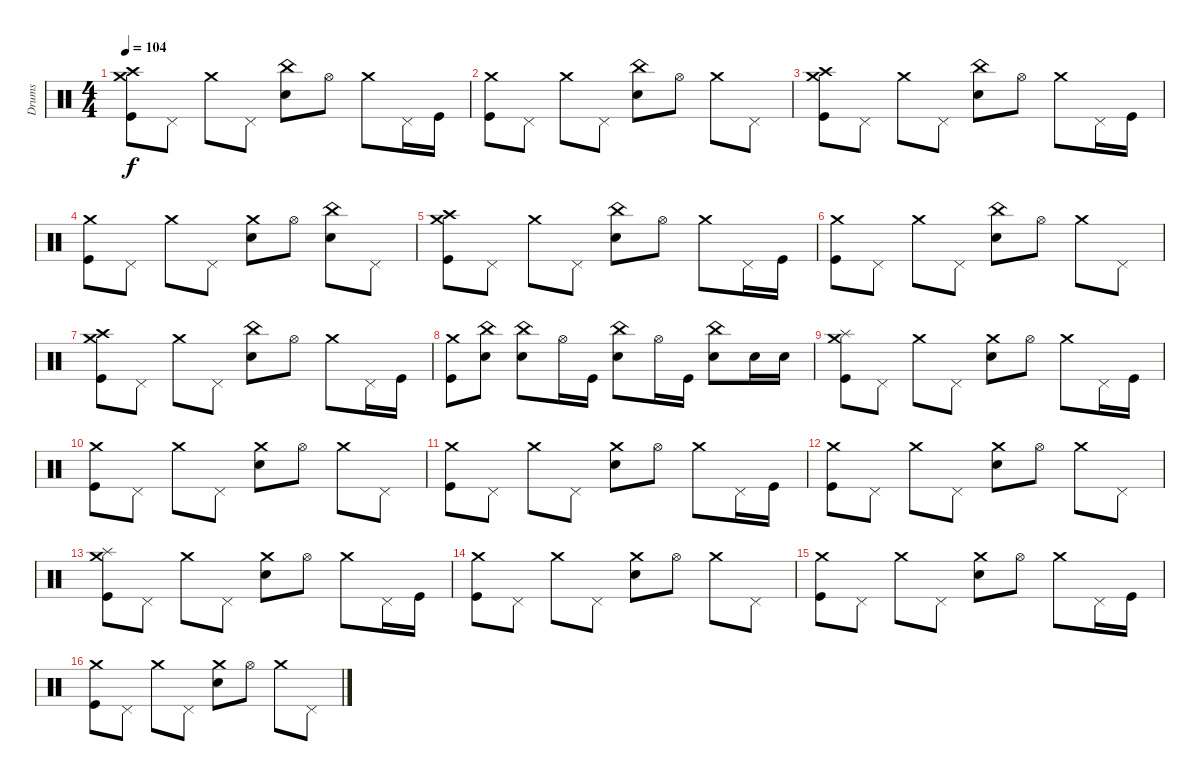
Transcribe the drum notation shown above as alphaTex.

\track ("Drums" "Drums") {instrument percussion}
\staff {score}
\articulation defaults
\ts (4 4)
\tempo 104
\clef neutral
\ks c
("Crash medium (hit)" "Crash high (hit)" "Kick (hit)").8{dy f} "Pedal Hi-Hat (hit)".8 "Crash medium (hit)".8 "Pedal Hi-Hat (hit)".8 ("China (hit)" "Electric Snare (hit)").8 "Hi-Hat (open)".8 "Crash medium (hit)".8 "Pedal Hi-Hat (hit)".16 "Kick (hit)".16 |
("Crash medium (hit)" "Kick (hit)").8 "Pedal Hi-Hat (hit)".8 "Crash medium (hit)".8 "Pedal Hi-Hat (hit)".8 ("China (hit)" "Electric Snare (hit)").8 "Hi-Hat (open)".8 "Crash medium (hit)".8 "Pedal Hi-Hat (hit)".8 |
("Crash medium (hit)" "Crash high (hit)" "Kick (hit)").8 "Pedal Hi-Hat (hit)".8 "Crash medium (hit)".8 "Pedal Hi-Hat (hit)".8 ("China (hit)" "Electric Snare (hit)").8 "Hi-Hat (open)".8 "Crash medium (hit)".8 "Pedal Hi-Hat (hit)".16 "Kick (hit)".16 |
("Crash medium (hit)" "Kick (hit)").8 "Pedal Hi-Hat (hit)".8 "Crash medium (hit)".8 "Pedal Hi-Hat (hit)".8 ("Crash medium (hit)" "Electric Snare (hit)").8 "Hi-Hat (open)".8 ("China (hit)" "Electric Snare (hit)").8 "Pedal Hi-Hat (hit)".8 |
("Crash medium (hit)" "Crash high (hit)" "Kick (hit)").8 "Pedal Hi-Hat (hit)".8 "Crash medium (hit)".8 "Pedal Hi-Hat (hit)".8 ("China (hit)" "Electric Snare (hit)").8 "Hi-Hat (open)".8 "Crash medium (hit)".8 "Pedal Hi-Hat (hit)".16 "Kick (hit)".16 |
("Crash medium (hit)" "Kick (hit)").8 "Pedal Hi-Hat (hit)".8 "Crash medium (hit)".8 "Pedal Hi-Hat (hit)".8 ("China (hit)" "Electric Snare (hit)").8 "Hi-Hat (open)".8 "Crash medium (hit)".8 "Pedal Hi-Hat (hit)".8 |
("Crash medium (hit)" "Crash high (hit)" "Kick (hit)").8 "Pedal Hi-Hat (hit)".8 "Crash medium (hit)".8 "Pedal Hi-Hat (hit)".8 ("China (hit)" "Electric Snare (hit)").8 "Hi-Hat (open)".8 "Crash medium (hit)".8 "Pedal Hi-Hat (hit)".16 "Kick (hit)".16 |
("Crash medium (hit)" "Kick (hit)").8 ("China (hit)" "Electric Snare (hit)").8 ("China (hit)" "Electric Snare (hit)").8 "Hi-Hat (open)".16 "Kick (hit)".16 ("China (hit)" "Electric Snare (hit)").8 "Hi-Hat (open)".16 "Kick (hit)".16 ("China (hit)" "Electric Snare (hit)").8 "Electric Snare (hit)".16 "Electric Snare (hit)".16 |
("Crash medium (hit)" "Splash (hit)" "Kick (hit)").8 "Pedal Hi-Hat (hit)".8 "Crash medium (hit)".8 "Pedal Hi-Hat (hit)".8 ("Crash medium (hit)" "Snare (hit) 2").8 "Hi-Hat (open)".8 "Crash medium (hit)".8 "Pedal Hi-Hat (hit)".16 "Kick (hit)".16 |
("Crash medium (hit)" "Kick (hit)").8 "Pedal Hi-Hat (hit)".8 "Crash medium (hit)".8 "Pedal Hi-Hat (hit)".8 ("Crash medium (hit)" "Snare (hit) 2").8 "Hi-Hat (open)".8 "Crash medium (hit)".8 "Pedal Hi-Hat (hit)".8 |
("Crash medium (hit)" "Kick (hit)").8 "Pedal Hi-Hat (hit)".8 "Crash medium (hit)".8 "Pedal Hi-Hat (hit)".8 ("Crash medium (hit)" "Snare (hit) 2").8 "Hi-Hat (open)".8 "Crash medium (hit)".8 "Pedal Hi-Hat (hit)".16 "Kick (hit)".16 |
("Crash medium (hit)" "Kick (hit)").8 "Pedal Hi-Hat (hit)".8 "Crash medium (hit)".8 "Pedal Hi-Hat (hit)".8 ("Crash medium (hit)" "Snare (hit) 2").8 "Hi-Hat (open)".8 "Crash medium (hit)".8 "Pedal Hi-Hat (hit)".8 |
("Crash medium (hit)" "Splash (hit)" "Kick (hit)").8 "Pedal Hi-Hat (hit)".8 "Crash medium (hit)".8 "Pedal Hi-Hat (hit)".8 ("Crash medium (hit)" "Snare (hit) 2").8 "Hi-Hat (open)".8 "Crash medium (hit)".8 "Pedal Hi-Hat (hit)".16 "Kick (hit)".16 |
("Crash medium (hit)" "Kick (hit)").8 "Pedal Hi-Hat (hit)".8 "Crash medium (hit)".8 "Pedal Hi-Hat (hit)".8 ("Crash medium (hit)" "Snare (hit) 2").8 "Hi-Hat (open)".8 "Crash medium (hit)".8 "Pedal Hi-Hat (hit)".8 |
("Crash medium (hit)" "Kick (hit)").8 "Pedal Hi-Hat (hit)".8 "Crash medium (hit)".8 "Pedal Hi-Hat (hit)".8 ("Crash medium (hit)" "Snare (hit) 2").8 "Hi-Hat (open)".8 "Crash medium (hit)".8 "Pedal Hi-Hat (hit)".16 "Kick (hit)".16 |
("Crash medium (hit)" "Kick (hit)").8 "Pedal Hi-Hat (hit)".8 "Crash medium (hit)".8 "Pedal Hi-Hat (hit)".8 ("Crash medium (hit)" "Snare (hit) 2").8 "Hi-Hat (open)".8 "Crash medium (hit)".8 "Pedal Hi-Hat (hit)".8
